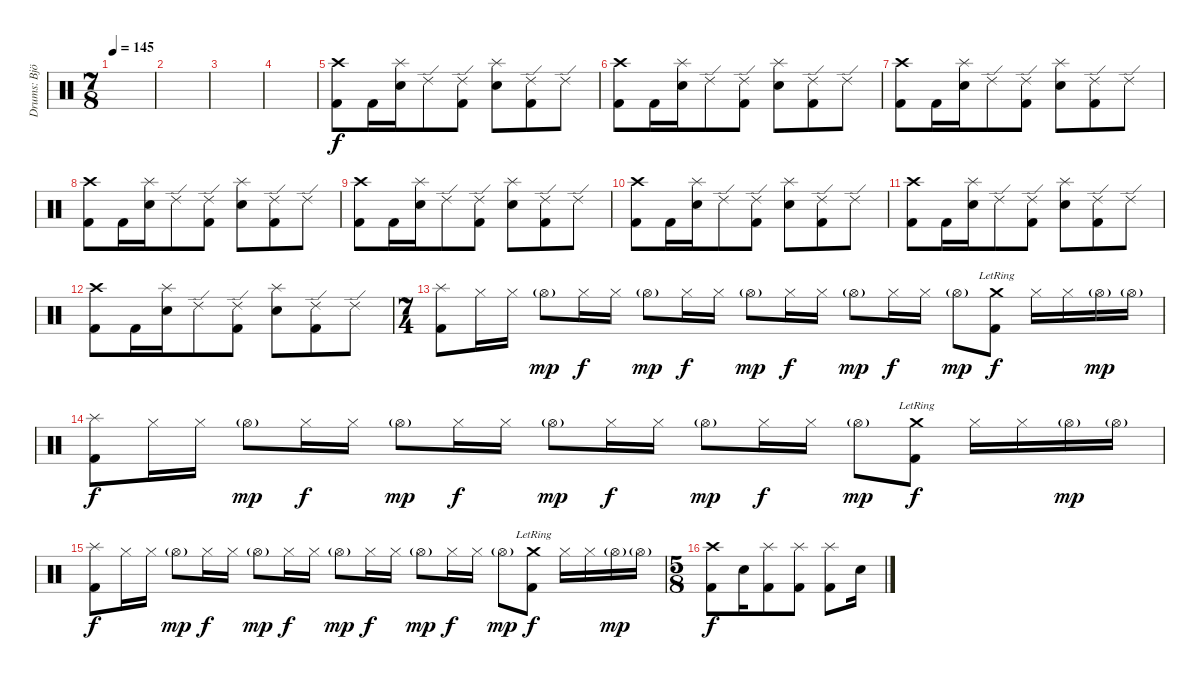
\track ("Drums: Björn Fryklund" "Drums: Bjö") {instrument percussion}
\staff {score}
\articulation defaults
\ts (7 8)
\tempo 145
\clef neutral
\ks c
|
|
|
|
("Crash high (hit)" "Kick (hit) 2").8 "Kick (hit) 2".16 ("Splash (hit)" "Snare (hit) 2").16 "Ride (edge) 2".8 ("Ride (edge) 2" "Kick (hit) 2").8 ("Splash (hit)" "Snare (hit) 2").8 ("Ride (edge) 2" "Kick (hit) 2").8 "Ride (edge) 2".8 |
("Crash high (hit)" "Kick (hit) 2").8 "Kick (hit) 2".16 ("Splash (hit)" "Snare (hit) 2").16 "Ride (edge) 2".8 ("Ride (edge) 2" "Kick (hit) 2").8 ("Splash (hit)" "Snare (hit) 2").8 ("Ride (edge) 2" "Kick (hit) 2").8 "Ride (edge) 2".8 |
("Crash high (hit)" "Kick (hit) 2").8 "Kick (hit) 2".16 ("Splash (hit)" "Snare (hit) 2").16 "Ride (edge) 2".8 ("Ride (edge) 2" "Kick (hit) 2").8 ("Splash (hit)" "Snare (hit) 2").8 ("Ride (edge) 2" "Kick (hit) 2").8 "Ride (edge) 2".8 |
("Crash high (hit)" "Kick (hit) 2").8 "Kick (hit) 2".16 ("Splash (hit)" "Snare (hit) 2").16 "Ride (edge) 2".8 ("Ride (edge) 2" "Kick (hit) 2").8 ("Splash (hit)" "Snare (hit) 2").8 ("Ride (edge) 2" "Kick (hit) 2").8 "Ride (edge) 2".8 |
("Crash high (hit)" "Kick (hit) 2").8 "Kick (hit) 2".16 ("Splash (hit)" "Snare (hit) 2").16 "Ride (edge) 2".8 ("Ride (edge) 2" "Kick (hit) 2").8 ("Splash (hit)" "Snare (hit) 2").8 ("Ride (edge) 2" "Kick (hit) 2").8 "Ride (edge) 2".8 |
("Crash high (hit)" "Kick (hit) 2").8 "Kick (hit) 2".16 ("Splash (hit)" "Snare (hit) 2").16 "Ride (edge) 2".8 ("Ride (edge) 2" "Kick (hit) 2").8 ("Splash (hit)" "Snare (hit) 2").8 ("Ride (edge) 2" "Kick (hit) 2").8 "Ride (edge) 2".8 |
("Crash high (hit)" "Kick (hit) 2").8 "Kick (hit) 2".16 ("Splash (hit)" "Snare (hit) 2").16 "Ride (edge) 2".8 ("Ride (edge) 2" "Kick (hit) 2").8 ("Splash (hit)" "Snare (hit) 2").8 ("Ride (edge) 2" "Kick (hit) 2").8 "Ride (edge) 2".8 |
("Crash high (hit)" "Kick (hit) 2").8 "Kick (hit) 2".16 ("Splash (hit)" "Snare (hit) 2").16 "Ride (edge) 2".8 ("Ride (edge) 2" "Kick (hit) 2").8 ("Splash (hit)" "Snare (hit) 2").8 ("Ride (edge) 2" "Kick (hit) 2").8 "Ride (edge) 2".8 |
\ts (7 4)
("Splash (hit)" "Kick (hit) 2").8 "Hi-Hat (closed)".16 "Hi-Hat (closed)".16 "Hi-Hat (open)"{g}.8{dy mp} "Hi-Hat (closed)".16{dy f} "Hi-Hat (closed)".16 "Hi-Hat (open)"{g}.8{dy mp} "Hi-Hat (closed)".16{dy f} "Hi-Hat (closed)".16 "Hi-Hat (open)"{g}.8{dy mp} "Hi-Hat (closed)".16{dy f} "Hi-Hat (closed)".16 "Hi-Hat (open)"{g}.8{dy mp} "Hi-Hat (closed)".16{dy f} "Hi-Hat (closed)".16 "Hi-Hat (open)"{g}.8{dy mp} ("Crash medium (hit)"{lr} "Kick (hit) 2").8{dy f} "Hi-Hat (closed)".16 "Hi-Hat (closed)".16 "Hi-Hat (open)"{g}.16{dy mp} "Hi-Hat (open)"{g}.16 |
("Splash (hit)" "Kick (hit) 2").8{dy f} "Hi-Hat (closed)".16 "Hi-Hat (closed)".16 "Hi-Hat (open)"{g}.8{dy mp} "Hi-Hat (closed)".16{dy f} "Hi-Hat (closed)".16 "Hi-Hat (open)"{g}.8{dy mp} "Hi-Hat (closed)".16{dy f} "Hi-Hat (closed)".16 "Hi-Hat (open)"{g}.8{dy mp} "Hi-Hat (closed)".16{dy f} "Hi-Hat (closed)".16 "Hi-Hat (open)"{g}.8{dy mp} "Hi-Hat (closed)".16{dy f} "Hi-Hat (closed)".16 "Hi-Hat (open)"{g}.8{dy mp} ("Crash medium (hit)"{lr} "Kick (hit) 2").8{dy f} "Hi-Hat (closed)".16 "Hi-Hat (closed)".16 "Hi-Hat (open)"{g}.16{dy mp} "Hi-Hat (open)"{g}.16 |
("Splash (hit)" "Kick (hit) 2").8{dy f} "Hi-Hat (closed)".16 "Hi-Hat (closed)".16 "Hi-Hat (open)"{g}.8{dy mp} "Hi-Hat (closed)".16{dy f} "Hi-Hat (closed)".16 "Hi-Hat (open)"{g}.8{dy mp} "Hi-Hat (closed)".16{dy f} "Hi-Hat (closed)".16 "Hi-Hat (open)"{g}.8{dy mp} "Hi-Hat (closed)".16{dy f} "Hi-Hat (closed)".16 "Hi-Hat (open)"{g}.8{dy mp} "Hi-Hat (closed)".16{dy f} "Hi-Hat (closed)".16 "Hi-Hat (open)"{g}.8{dy mp} ("Crash medium (hit)"{lr} "Kick (hit) 2").8{dy f} "Hi-Hat (closed)".16 "Hi-Hat (closed)".16 "Hi-Hat (open)"{g}.16{dy mp} "Hi-Hat (open)"{g}.16 |
\ts (5 8)
("Crash high (hit)" "Kick (hit) 2").8{dy f} "Snare (hit) 2".16 ("Splash (hit)" "Kick (hit) 2").8 ("Splash (hit)" "Kick (hit) 2").8 ("Splash (hit)" "Kick (hit) 2").8 "Snare (hit) 2".16
